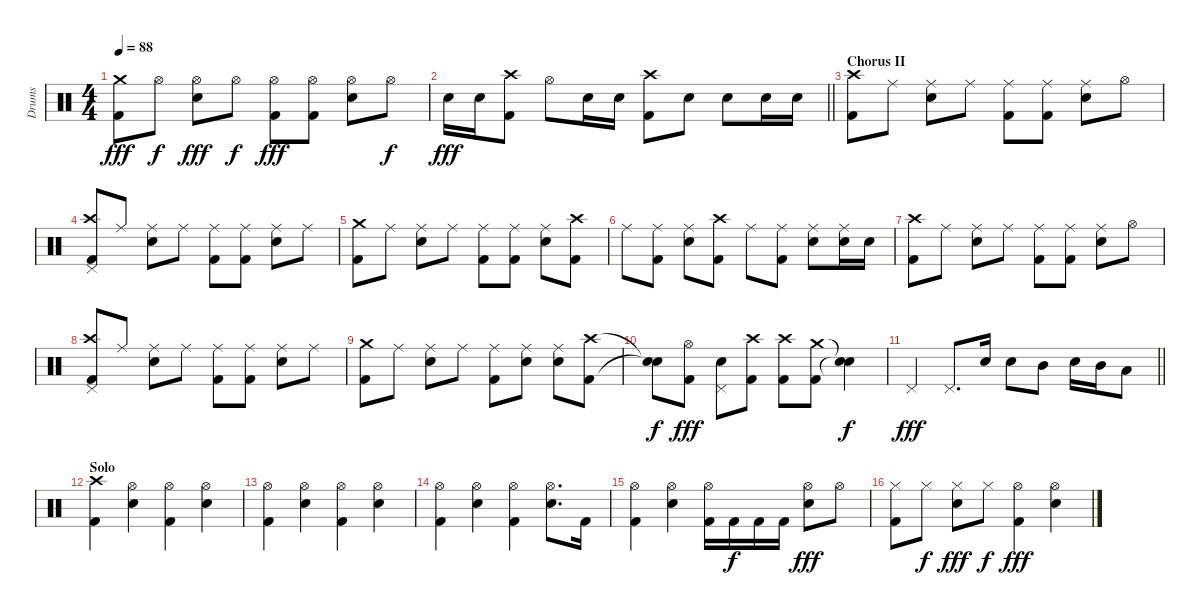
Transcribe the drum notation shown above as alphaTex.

\track ("Drums" "Drums") {instrument percussion}
\staff {score}
\articulation defaults
\ts (4 4)
\tempo 88
\clef neutral
\ks c
("Crash medium (hit)" "Kick (hit) 2").8{dy fff} "Hi-Hat (open)".8{dy f} ("Hi-Hat (open)" "Snare (hit) 2").8{dy fff} "Hi-Hat (open)".8{dy f} ("Hi-Hat (open)" "Kick (hit) 2").8{dy fff} ("Hi-Hat (open)" "Kick (hit) 2").8 ("Hi-Hat (open)" "Snare (hit) 2").8 "Hi-Hat (open)".8{dy f} |
\barLineRight lightlight "Snare (hit) 2".16{dy fff} "Snare (hit) 2".16
("Crash high (hit)" "Kick (hit) 2").8 "Hi-Hat (open)".8 "Snare (hit) 2".16 "Snare (hit) 2".16 ("Crash high (hit)" "Kick (hit) 2").8 "Snare (hit) 2".8 "Snare (hit) 2".8 "Snare (hit) 2".16 "Snare (hit) 2".16 |
\section ("" "Chorus II")
("Crash high (hit)" "Kick (hit) 2").8 "Ride (middle)".8 ("Ride (middle)" "Snare (hit) 2").8 "Ride (middle)".8 ("Ride (middle)" "Kick (hit) 2").8 ("Ride (middle)" "Kick (hit) 2").8 ("Ride (middle)" "Snare (hit) 2").8 "Hi-Hat (open)".8 |
("Pedal Hi-Hat (hit)" "Crash high (hit)" "Kick (hit) 2").8 "Ride (middle)".8 ("Ride (middle)" "Snare (hit) 2").8 "Ride (middle)".8 ("Ride (middle)" "Kick (hit) 2").8 ("Ride (middle)" "Kick (hit) 2").8 ("Ride (middle)" "Snare (hit) 2").8 "Ride (middle)".8 |
("Crash medium (hit)" "Kick (hit) 2").8 "Ride (middle)".8 ("Ride (middle)" "Snare (hit) 2").8 "Ride (middle)".8 ("Ride (middle)" "Kick (hit) 2").8 ("Ride (middle)" "Kick (hit) 2").8 ("Ride (middle)" "Snare (hit) 2").8 ("Crash high (hit)" "Kick (hit) 2").8 |
"Ride (middle)".8 ("Ride (middle)" "Kick (hit) 2").8 ("Ride (middle)" "Snare (hit) 2").8 ("Crash high (hit)" "Kick (hit) 2").8 "Ride (middle)".8 ("Ride (middle)" "Kick (hit) 2").8 ("Ride (middle)" "Snare (hit) 2").8 ("Ride (middle)" "Snare (hit) 2").16 "Snare (hit) 2".16 |
("Crash high (hit)" "Kick (hit) 2").8 "Ride (middle)".8 ("Ride (middle)" "Snare (hit) 2").8 "Ride (middle)".8 ("Ride (middle)" "Kick (hit) 2").8 ("Ride (middle)" "Kick (hit) 2").8 ("Ride (middle)" "Snare (hit) 2").8 "Hi-Hat (open)".8 |
("Pedal Hi-Hat (hit)" "Crash high (hit)" "Kick (hit) 2").8 "Ride (middle)".8 ("Ride (middle)" "Snare (hit) 2").8 "Ride (middle)".8 ("Ride (middle)" "Kick (hit) 2").8 ("Ride (middle)" "Kick (hit) 2").8 ("Ride (middle)" "Snare (hit) 2").8 "Ride (middle)".8 |
("Crash medium (hit)" "Kick (hit) 2").8 "Ride (middle)".8 ("Ride (middle)" "Snare (hit) 2").8 "Ride (middle)".8 ("Ride (middle)" "Kick (hit) 2").8 ("Ride (middle)" "Snare (hit) 2").8 ("Ride (middle)" "Snare (hit) 2").8 ("Crash high (hit)" "Kick (hit) 2").8 |
("Snare (hit)"{t} "Snare (hit)"{t}).8{dy f} ("Hi-Hat (open)" "Kick (hit) 2").8{dy fff} ("Pedal Hi-Hat (hit)" "Snare (hit) 2").8 ("Crash high (hit)" "Kick (hit) 2").8 ("Crash high (hit)" "Kick (hit) 2").8 ("Crash medium (hit)" "Kick (hit) 2").8 ("Snare (hit)"{t} "Snare (hit)"{t}).4{dy f} |
\barLineRight lightlight "Pedal Hi-Hat (hit)".4{dy fff} "Pedal Hi-Hat (hit)".8{d} "Snare (hit) 2".16 "Snare (hit) 2".8 "Mid Tom (hit)".8 "Snare (hit) 2".16 "Mid Tom (hit)".16 "Low Tom (hit)".8
|
\section ("" "Solo")
("Crash high (hit)" "Kick (hit) 2").4 ("Hi-Hat (open)" "Snare (hit) 2").4 ("Hi-Hat (open)" "Kick (hit) 2").4 ("Hi-Hat (open)" "Snare (hit) 2").4 |
("Hi-Hat (open)" "Kick (hit) 2").4 ("Hi-Hat (open)" "Snare (hit) 2").4 ("Hi-Hat (open)" "Kick (hit) 2").4 ("Hi-Hat (open)" "Snare (hit) 2").4 |
("Hi-Hat (open)" "Kick (hit) 2").4 ("Hi-Hat (open)" "Snare (hit) 2").4 ("Hi-Hat (open)" "Kick (hit) 2").4 ("Hi-Hat (open)" "Snare (hit) 2").8{d} "Kick (hit) 2".16 |
("Hi-Hat (open)" "Kick (hit) 2").4 ("Hi-Hat (open)" "Snare (hit) 2").4 ("Hi-Hat (open)" "Kick (hit) 2").16 "Kick (hit) 2".16{dy f} "Kick (hit) 2".16 "Kick (hit) 2".16 ("Hi-Hat (open)" "Snare (hit) 2").8{dy fff} "Hi-Hat (open)".8 |
("Hi-Hat (closed)" "Kick (hit) 2").8 "Hi-Hat (closed)".8{dy f} ("Hi-Hat (closed)" "Snare (hit) 2").8{dy fff} "Hi-Hat (closed)".8{dy f} ("Hi-Hat (open)" "Kick (hit) 2").4{dy fff} ("Hi-Hat (open)" "Snare (hit) 2").4
